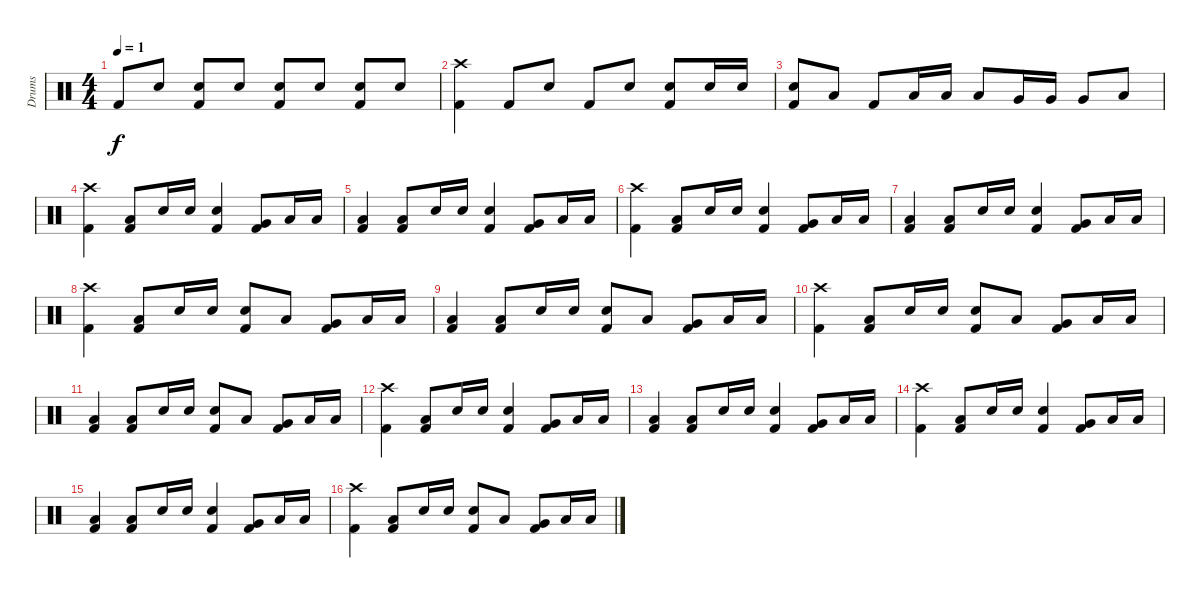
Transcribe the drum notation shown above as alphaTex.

\track ("Drums" "Drums") {instrument percussion}
\staff {score}
\articulation defaults
\ts (4 4)
\tempo 1
\clef neutral
\ks c "Kick (hit) 2".8{dy f} "Snare (hit) 2".8
("Kick (hit) 2" "Snare (hit) 2").8 "Snare (hit) 2".8 ("Kick (hit) 2" "Snare (hit) 2").8 "Snare (hit) 2".8 ("Kick (hit) 2" "Snare (hit) 2").8 "Snare (hit) 2".8 |
("Kick (hit) 2" "Crash high (hit)").4 "Kick (hit) 2".8 "Snare (hit) 2".8 "Kick (hit) 2".8 "Snare (hit) 2".8 ("Kick (hit) 2" "Snare (hit) 2").8 "Snare (hit) 2".16 "Snare (hit) 2".16 |
("Kick (hit) 2" "Snare (hit) 2").8 "Low Tom (hit)".8 "Kick (hit) 2".8 "Low Tom (hit)".16 "Low Tom (hit)".16 "Low Tom (hit)".8 "Very Low Tom (hit)".16 "Very Low Tom (hit)".16 "Very Low Tom (hit)".8 "Low Floor Tom (hit)".8 |
("Kick (hit) 2" "Crash high (hit)").4 ("Kick (hit) 2" "Low Floor Tom (hit)").8 "Snare (hit) 2".16 "Snare (hit) 2".16 ("Snare (hit) 2" "Kick (hit) 2").4 ("Kick (hit) 2" "Very Low Tom (hit)").8 "Low Floor Tom (hit)".16 "Low Floor Tom (hit)".16 |
("Kick (hit) 2" "Low Floor Tom (hit)").4 ("Kick (hit) 2" "Low Floor Tom (hit)").8 "Snare (hit) 2".16 "Snare (hit) 2".16 ("Snare (hit) 2" "Kick (hit) 2").4 ("Kick (hit) 2" "Very Low Tom (hit)").8 "Low Floor Tom (hit)".16 "Low Floor Tom (hit)".16 |
("Kick (hit) 2" "Crash high (hit)").4 ("Kick (hit) 2" "Low Floor Tom (hit)").8 "Snare (hit) 2".16 "Snare (hit) 2".16 ("Snare (hit) 2" "Kick (hit) 2").4 ("Kick (hit) 2" "Very Low Tom (hit)").8 "Low Floor Tom (hit)".16 "Low Floor Tom (hit)".16 |
("Kick (hit) 2" "Low Floor Tom (hit)").4 ("Kick (hit) 2" "Low Floor Tom (hit)").8 "Snare (hit) 2".16 "Snare (hit) 2".16 ("Snare (hit) 2" "Kick (hit) 2").4 ("Kick (hit) 2" "Very Low Tom (hit)").8 "Low Floor Tom (hit)".16 "Low Floor Tom (hit)".16 |
("Kick (hit) 2" "Crash high (hit)").4 ("Kick (hit) 2" "Low Floor Tom (hit)").8 "Snare (hit) 2".16 "Snare (hit) 2".16 ("Snare (hit) 2" "Kick (hit) 2").8 "Low Tom (hit)".8 ("Kick (hit) 2" "Very Low Tom (hit)").8 "Low Floor Tom (hit)".16 "Low Floor Tom (hit)".16 |
("Kick (hit) 2" "Low Floor Tom (hit)").4 ("Kick (hit) 2" "Low Floor Tom (hit)").8 "Snare (hit) 2".16 "Snare (hit) 2".16 ("Snare (hit) 2" "Kick (hit) 2").8 "Low Tom (hit)".8 ("Kick (hit) 2" "Very Low Tom (hit)").8 "Low Floor Tom (hit)".16 "Low Floor Tom (hit)".16 |
("Kick (hit) 2" "Crash high (hit)").4 ("Kick (hit) 2" "Low Floor Tom (hit)").8 "Snare (hit) 2".16 "Snare (hit) 2".16 ("Snare (hit) 2" "Kick (hit) 2").8 "Low Tom (hit)".8 ("Kick (hit) 2" "Very Low Tom (hit)").8 "Low Floor Tom (hit)".16 "Low Floor Tom (hit)".16 |
("Kick (hit) 2" "Low Floor Tom (hit)").4 ("Kick (hit) 2" "Low Floor Tom (hit)").8 "Snare (hit) 2".16 "Snare (hit) 2".16 ("Snare (hit) 2" "Kick (hit) 2").8 "Low Tom (hit)".8 ("Kick (hit) 2" "Very Low Tom (hit)").8 "Low Floor Tom (hit)".16 "Low Floor Tom (hit)".16 |
("Kick (hit) 2" "Crash high (hit)").4 ("Kick (hit) 2" "Low Floor Tom (hit)").8 "Snare (hit) 2".16 "Snare (hit) 2".16 ("Snare (hit) 2" "Kick (hit) 2").4 ("Kick (hit) 2" "Very Low Tom (hit)").8 "Low Floor Tom (hit)".16 "Low Floor Tom (hit)".16 |
("Kick (hit) 2" "Low Floor Tom (hit)").4 ("Kick (hit) 2" "Low Floor Tom (hit)").8 "Snare (hit) 2".16 "Snare (hit) 2".16 ("Snare (hit) 2" "Kick (hit) 2").4 ("Kick (hit) 2" "Very Low Tom (hit)").8 "Low Floor Tom (hit)".16 "Low Floor Tom (hit)".16 |
("Kick (hit) 2" "Crash high (hit)").4 ("Kick (hit) 2" "Low Floor Tom (hit)").8 "Snare (hit) 2".16 "Snare (hit) 2".16 ("Snare (hit) 2" "Kick (hit) 2").4 ("Kick (hit) 2" "Very Low Tom (hit)").8 "Low Floor Tom (hit)".16 "Low Floor Tom (hit)".16 |
("Kick (hit) 2" "Low Floor Tom (hit)").4 ("Kick (hit) 2" "Low Floor Tom (hit)").8 "Snare (hit) 2".16 "Snare (hit) 2".16 ("Snare (hit) 2" "Kick (hit) 2").4 ("Kick (hit) 2" "Very Low Tom (hit)").8 "Low Floor Tom (hit)".16 "Low Floor Tom (hit)".16 |
("Kick (hit) 2" "Crash high (hit)").4 ("Kick (hit) 2" "Low Floor Tom (hit)").8 "Snare (hit) 2".16 "Snare (hit) 2".16 ("Snare (hit) 2" "Kick (hit) 2").8 "Low Tom (hit)".8 ("Kick (hit) 2" "Very Low Tom (hit)").8 "Low Floor Tom (hit)".16 "Low Floor Tom (hit)".16
